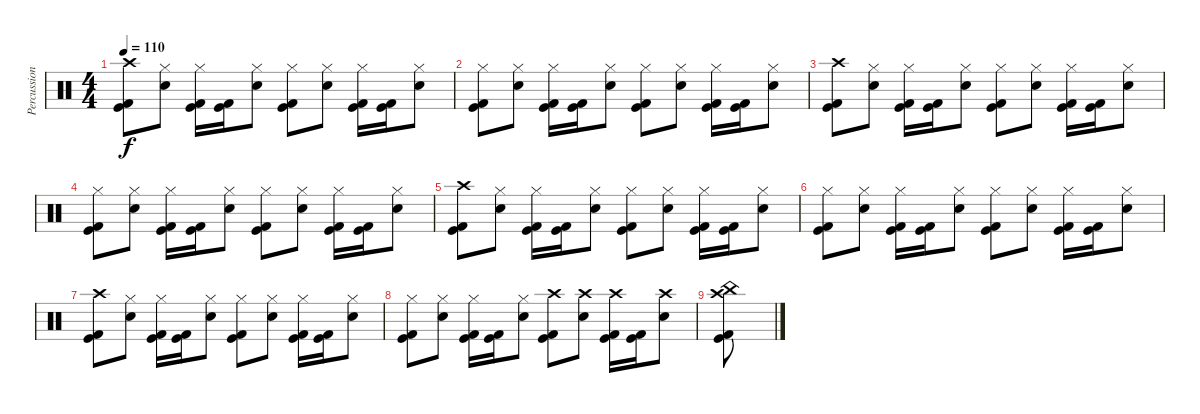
\track ("Percussion" "Percussion") {instrument percussion}
\staff {score}
\articulation defaults
\ts (4 4)
\tempo 110
\clef neutral
\ks c
("Crash high (hit)" "Kick (hit)" "Kick (hit) 2").8{dy f} ("Hi-Hat (closed)" "Snare (hit) 2").8 ("Hi-Hat (closed)" "Kick (hit)" "Kick (hit) 2").16 ("Kick (hit)" "Kick (hit) 2").16 ("Hi-Hat (closed)" "Snare (hit) 2").8 ("Hi-Hat (closed)" "Kick (hit)" "Kick (hit) 2").8 ("Hi-Hat (closed)" "Snare (hit) 2").8 ("Hi-Hat (closed)" "Kick (hit)" "Kick (hit) 2").16 ("Kick (hit)" "Kick (hit) 2").16 ("Hi-Hat (closed)" "Snare (hit) 2").8 |
("Hi-Hat (closed)" "Kick (hit)" "Kick (hit) 2").8 ("Hi-Hat (closed)" "Snare (hit) 2").8 ("Hi-Hat (closed)" "Kick (hit)" "Kick (hit) 2").16 ("Kick (hit)" "Kick (hit) 2").16 ("Hi-Hat (closed)" "Snare (hit) 2").8 ("Hi-Hat (closed)" "Kick (hit)" "Kick (hit) 2").8 ("Hi-Hat (closed)" "Snare (hit) 2").8 ("Hi-Hat (closed)" "Kick (hit)" "Kick (hit) 2").16 ("Kick (hit)" "Kick (hit) 2").16 ("Hi-Hat (closed)" "Snare (hit) 2").8 |
("Crash high (hit)" "Kick (hit)" "Kick (hit) 2").8 ("Hi-Hat (closed)" "Snare (hit) 2").8 ("Hi-Hat (closed)" "Kick (hit)" "Kick (hit) 2").16 ("Kick (hit)" "Kick (hit) 2").16 ("Hi-Hat (closed)" "Snare (hit) 2").8 ("Hi-Hat (closed)" "Kick (hit)" "Kick (hit) 2").8 ("Hi-Hat (closed)" "Snare (hit) 2").8 ("Hi-Hat (closed)" "Kick (hit)" "Kick (hit) 2").16 ("Kick (hit)" "Kick (hit) 2").16 ("Hi-Hat (closed)" "Snare (hit) 2").8 |
("Hi-Hat (closed)" "Kick (hit)" "Kick (hit) 2").8 ("Hi-Hat (closed)" "Snare (hit) 2").8 ("Hi-Hat (closed)" "Kick (hit)" "Kick (hit) 2").16 ("Kick (hit)" "Kick (hit) 2").16 ("Hi-Hat (closed)" "Snare (hit) 2").8 ("Hi-Hat (closed)" "Kick (hit)" "Kick (hit) 2").8 ("Hi-Hat (closed)" "Snare (hit) 2").8 ("Hi-Hat (closed)" "Kick (hit)" "Kick (hit) 2").16 ("Kick (hit)" "Kick (hit) 2").16 ("Hi-Hat (closed)" "Snare (hit) 2").8 |
("Crash high (hit)" "Kick (hit)" "Kick (hit) 2").8 ("Hi-Hat (closed)" "Snare (hit) 2").8 ("Hi-Hat (closed)" "Kick (hit)" "Kick (hit) 2").16 ("Kick (hit)" "Kick (hit) 2").16 ("Hi-Hat (closed)" "Snare (hit) 2").8 ("Hi-Hat (closed)" "Kick (hit)" "Kick (hit) 2").8 ("Hi-Hat (closed)" "Snare (hit) 2").8 ("Hi-Hat (closed)" "Kick (hit)" "Kick (hit) 2").16 ("Kick (hit)" "Kick (hit) 2").16 ("Hi-Hat (closed)" "Snare (hit) 2").8 |
("Hi-Hat (closed)" "Kick (hit)" "Kick (hit) 2").8 ("Hi-Hat (closed)" "Snare (hit) 2").8 ("Hi-Hat (closed)" "Kick (hit)" "Kick (hit) 2").16 ("Kick (hit)" "Kick (hit) 2").16 ("Hi-Hat (closed)" "Snare (hit) 2").8 ("Hi-Hat (closed)" "Kick (hit)" "Kick (hit) 2").8 ("Hi-Hat (closed)" "Snare (hit) 2").8 ("Hi-Hat (closed)" "Kick (hit)" "Kick (hit) 2").16 ("Kick (hit)" "Kick (hit) 2").16 ("Hi-Hat (closed)" "Snare (hit) 2").8 |
("Crash high (hit)" "Kick (hit)" "Kick (hit) 2").8 ("Hi-Hat (closed)" "Snare (hit) 2").8 ("Hi-Hat (closed)" "Kick (hit)" "Kick (hit) 2").16 ("Kick (hit)" "Kick (hit) 2").16 ("Hi-Hat (closed)" "Snare (hit) 2").8 ("Hi-Hat (closed)" "Kick (hit)" "Kick (hit) 2").8 ("Hi-Hat (closed)" "Snare (hit) 2").8 ("Hi-Hat (closed)" "Kick (hit)" "Kick (hit) 2").16 ("Kick (hit)" "Kick (hit) 2").16 ("Hi-Hat (closed)" "Snare (hit) 2").8 |
("Hi-Hat (closed)" "Kick (hit)" "Kick (hit) 2").8 ("Hi-Hat (closed)" "Snare (hit) 2").8 ("Hi-Hat (closed)" "Kick (hit)" "Kick (hit) 2").16 ("Kick (hit)" "Kick (hit) 2").16 ("Hi-Hat (closed)" "Snare (hit) 2").8 ("Crash high (hit)" "Kick (hit)" "Kick (hit) 2").8 ("Crash high (hit)" "Snare (hit) 2").8 ("Crash high (hit)" "Kick (hit)" "Kick (hit) 2").16 ("Kick (hit)" "Kick (hit) 2").16 ("Crash high (hit)" "Snare (hit) 2").8 |
("Crash high (hit)" "China (hit)" "Kick (hit)" "Kick (hit) 2").8
